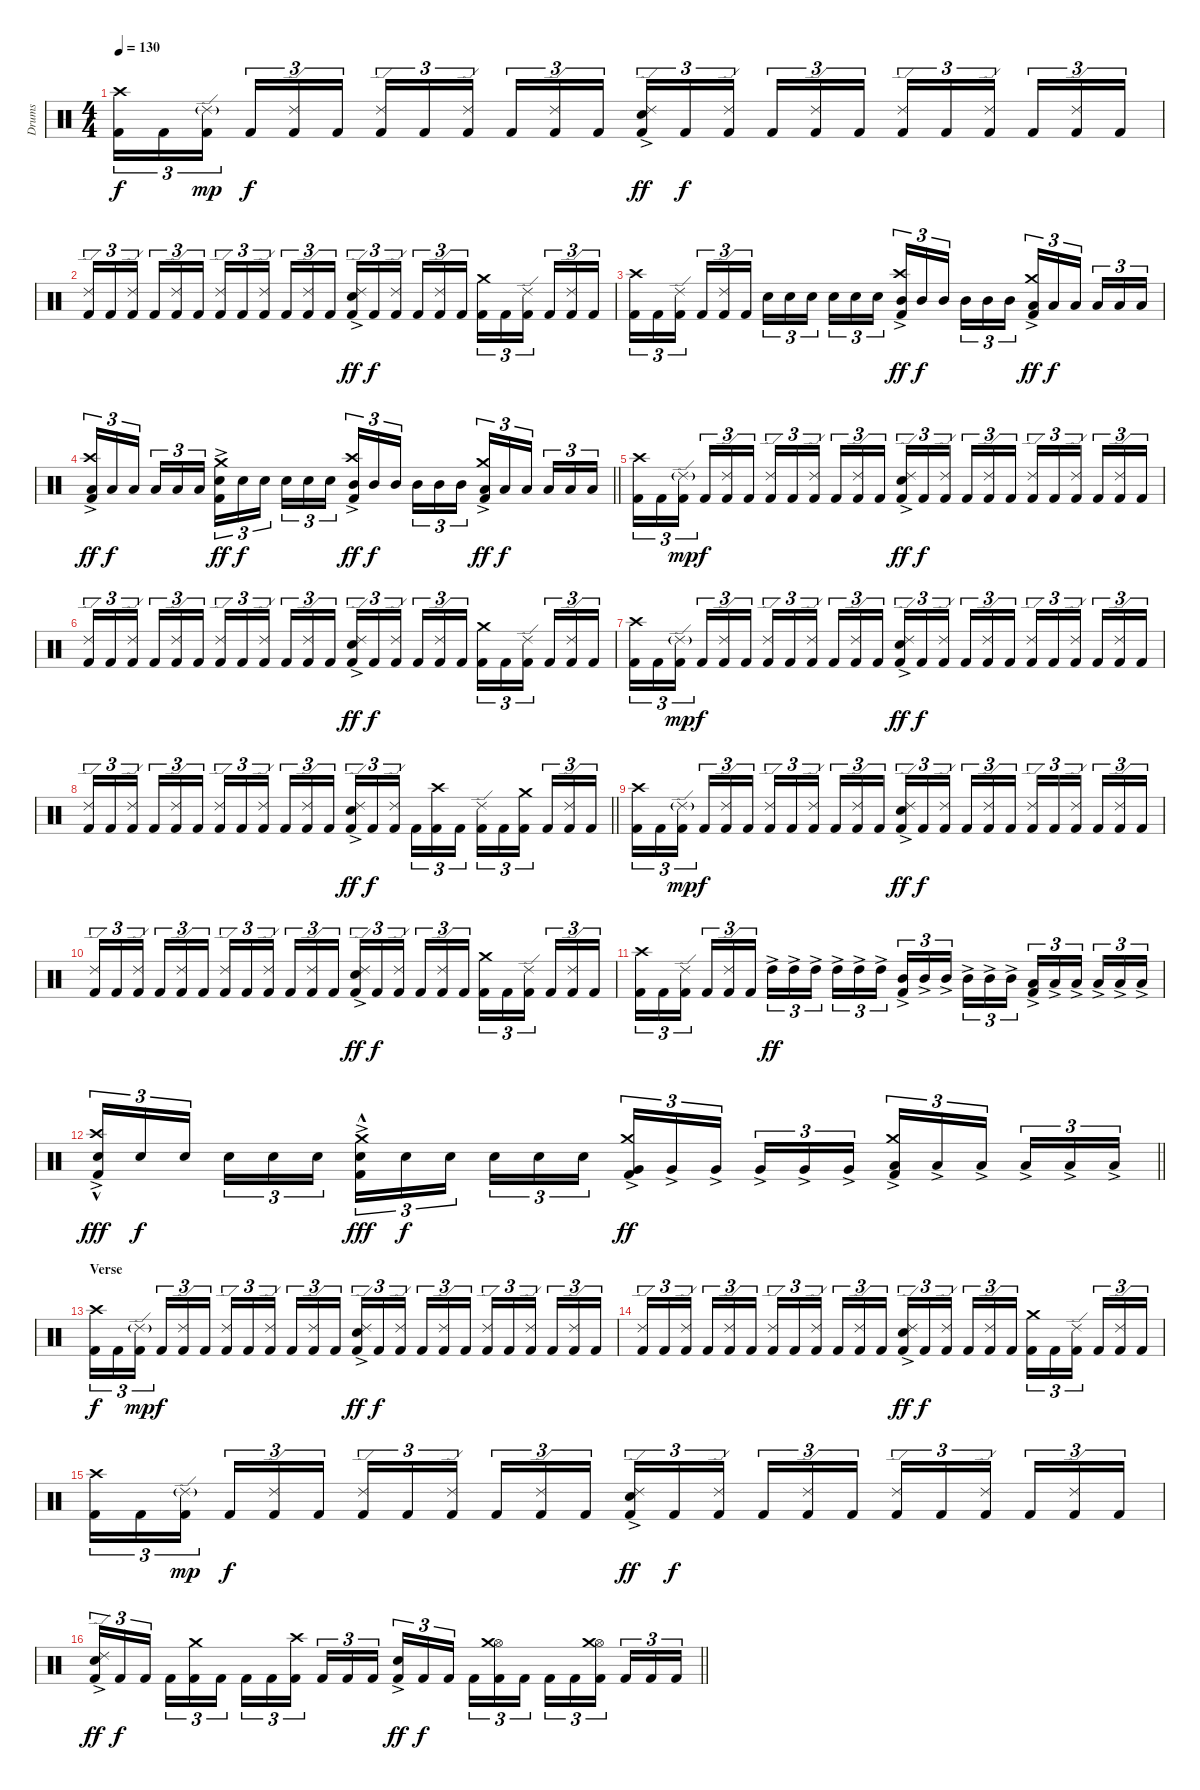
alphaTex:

\track ("Drums" "Drums") {instrument percussion}
\staff {score}
\articulation defaults
\ts (4 4)
\section ("" "")
\tempo 130
\clef neutral
\ks c
("Kick (hit) 2" "Crash high (hit)").16{tu (3 2) dy f} "Kick (hit) 2".16{tu (3 2)} ("Kick (hit) 2" "Ride (edge) 2"{g}).16{tu (3 2) dy mp beam splitsecondary} "Kick (hit) 2".16{tu (3 2) dy f} ("Kick (hit) 2" "Ride (edge) 2").16{tu (3 2)} "Kick (hit) 2".16{tu (3 2)} ("Kick (hit) 2" "Ride (edge) 2").16{tu (3 2)} "Kick (hit) 2".16{tu (3 2)} ("Kick (hit) 2" "Ride (edge) 2").16{tu (3 2) beam splitsecondary} "Kick (hit) 2".16{tu (3 2)} ("Kick (hit) 2" "Ride (edge) 2").16{tu (3 2)} "Kick (hit) 2".16{tu (3 2)} ("Kick (hit) 2" "Snare (hit) 2"{ac} "Ride (edge) 2").16{tu (3 2) dy ff} "Kick (hit) 2".16{tu (3 2) dy f} ("Kick (hit) 2" "Ride (edge) 2").16{tu (3 2) beam splitsecondary} "Kick (hit) 2".16{tu (3 2)} ("Kick (hit) 2" "Ride (edge) 2").16{tu (3 2)} "Kick (hit) 2".16{tu (3 2)} ("Kick (hit) 2" "Ride (edge) 2").16{tu (3 2)} "Kick (hit) 2".16{tu (3 2)} ("Kick (hit) 2" "Ride (edge) 2").16{tu (3 2) beam splitsecondary} "Kick (hit) 2".16{tu (3 2)} ("Kick (hit) 2" "Ride (edge) 2").16{tu (3 2)} "Kick (hit) 2".16{tu (3 2)} |
("Kick (hit) 2" "Ride (edge) 2").16{tu (3 2)} "Kick (hit) 2".16{tu (3 2)} ("Kick (hit) 2" "Ride (edge) 2").16{tu (3 2) beam splitsecondary} "Kick (hit) 2".16{tu (3 2)} ("Kick (hit) 2" "Ride (edge) 2").16{tu (3 2)} "Kick (hit) 2".16{tu (3 2)} ("Kick (hit) 2" "Ride (edge) 2").16{tu (3 2)} "Kick (hit) 2".16{tu (3 2)} ("Kick (hit) 2" "Ride (edge) 2").16{tu (3 2) beam splitsecondary} "Kick (hit) 2".16{tu (3 2)} ("Kick (hit) 2" "Ride (edge) 2").16{tu (3 2)} "Kick (hit) 2".16{tu (3 2)} ("Kick (hit) 2" "Snare (hit) 2"{ac} "Ride (edge) 2").16{tu (3 2) dy ff} "Kick (hit) 2".16{tu (3 2) dy f} ("Kick (hit) 2" "Ride (edge) 2").16{tu (3 2) beam splitsecondary} "Kick (hit) 2".16{tu (3 2)} ("Kick (hit) 2" "Ride (edge) 2").16{tu (3 2)} "Kick (hit) 2".16{tu (3 2)} ("Kick (hit) 2" "Crash medium (hit)").16{tu (3 2)} "Kick (hit) 2".16{tu (3 2)} ("Kick (hit) 2" "Ride (edge) 2").16{tu (3 2) beam splitsecondary} "Kick (hit) 2".16{tu (3 2)} ("Kick (hit) 2" "Ride (edge) 2").16{tu (3 2)} "Kick (hit) 2".16{tu (3 2)} |
("Kick (hit) 2" "Crash high (hit)").16{tu (3 2)} "Kick (hit) 2".16{tu (3 2)} ("Kick (hit) 2" "Ride (edge) 2").16{tu (3 2) beam splitsecondary} "Kick (hit) 2".16{tu (3 2)} ("Kick (hit) 2" "Ride (edge) 2").16{tu (3 2)} "Kick (hit) 2".16{tu (3 2)} "Snare (hit) 2".16{tu (3 2)} "Snare (hit) 2".16{tu (3 2)} "Snare (hit) 2".16{tu (3 2) beam splitsecondary} "Snare (hit) 2".16{tu (3 2)} "Snare (hit) 2".16{tu (3 2)} "Snare (hit) 2".16{tu (3 2)} ("Kick (hit) 2"{ac} "Mid Tom (hit)" "Crash high (hit)").16{tu (3 2) dy ff} "Mid Tom (hit)".16{tu (3 2) dy f} "Mid Tom (hit)".16{tu (3 2) beam splitsecondary} "Mid Tom (hit)".16{tu (3 2)} "Mid Tom (hit)".16{tu (3 2)} "Mid Tom (hit)".16{tu (3 2)} ("Kick (hit) 2"{ac} "Low Tom (hit)" "Crash medium (hit)").16{tu (3 2) dy ff} "Low Tom (hit)".16{tu (3 2) dy f} "Low Tom (hit)".16{tu (3 2) beam splitsecondary} "Low Tom (hit)".16{tu (3 2)} "Low Tom (hit)".16{tu (3 2)} "Low Tom (hit)".16{tu (3 2)} |
\barLineRight lightlight
("Kick (hit) 2"{ac} "Low Tom (hit)" "Crash high (hit)").16{tu (3 2) dy ff} "Low Tom (hit)".16{tu (3 2) dy f} "Low Tom (hit)".16{tu (3 2) beam splitsecondary} "Low Tom (hit)".16{tu (3 2)} "Low Tom (hit)".16{tu (3 2)} "Low Tom (hit)".16{tu (3 2)} ("Kick (hit) 2"{ac} "Snare (hit) 2" "Crash medium (hit)").16{tu (3 2) dy ff} "Snare (hit) 2".16{tu (3 2) dy f} "Snare (hit) 2".16{tu (3 2) beam splitsecondary} "Snare (hit) 2".16{tu (3 2)} "Snare (hit) 2".16{tu (3 2)} "Snare (hit) 2".16{tu (3 2)} ("Kick (hit) 2"{ac} "Mid Tom (hit)" "Crash high (hit)").16{tu (3 2) dy ff} "Mid Tom (hit)".16{tu (3 2) dy f} "Mid Tom (hit)".16{tu (3 2) beam splitsecondary} "Mid Tom (hit)".16{tu (3 2)} "Mid Tom (hit)".16{tu (3 2)} "Mid Tom (hit)".16{tu (3 2)} ("Kick (hit) 2"{ac} "Low Tom (hit)" "Crash medium (hit)").16{tu (3 2) dy ff} "Low Tom (hit)".16{tu (3 2) dy f} "Low Tom (hit)".16{tu (3 2) beam splitsecondary} "Low Tom (hit)".16{tu (3 2)} "Low Tom (hit)".16{tu (3 2)} "Low Tom (hit)".16{tu (3 2)} |
\section ("" "")
("Kick (hit) 2" "Crash high (hit)").16{tu (3 2)} "Kick (hit) 2".16{tu (3 2)} ("Kick (hit) 2" "Ride (edge) 2"{g}).16{tu (3 2) dy mp beam splitsecondary} "Kick (hit) 2".16{tu (3 2) dy f} ("Kick (hit) 2" "Ride (edge) 2").16{tu (3 2)} "Kick (hit) 2".16{tu (3 2)} ("Kick (hit) 2" "Ride (edge) 2").16{tu (3 2)} "Kick (hit) 2".16{tu (3 2)} ("Kick (hit) 2" "Ride (edge) 2").16{tu (3 2) beam splitsecondary} "Kick (hit) 2".16{tu (3 2)} ("Kick (hit) 2" "Ride (edge) 2").16{tu (3 2)} "Kick (hit) 2".16{tu (3 2)} ("Kick (hit) 2" "Snare (hit) 2"{ac} "Ride (edge) 2").16{tu (3 2) dy ff} "Kick (hit) 2".16{tu (3 2) dy f} ("Kick (hit) 2" "Ride (edge) 2").16{tu (3 2) beam splitsecondary} "Kick (hit) 2".16{tu (3 2)} ("Kick (hit) 2" "Ride (edge) 2").16{tu (3 2)} "Kick (hit) 2".16{tu (3 2)} ("Kick (hit) 2" "Ride (edge) 2").16{tu (3 2)} "Kick (hit) 2".16{tu (3 2)} ("Kick (hit) 2" "Ride (edge) 2").16{tu (3 2) beam splitsecondary} "Kick (hit) 2".16{tu (3 2)} ("Kick (hit) 2" "Ride (edge) 2").16{tu (3 2)} "Kick (hit) 2".16{tu (3 2)} |
("Kick (hit) 2" "Ride (edge) 2").16{tu (3 2)} "Kick (hit) 2".16{tu (3 2)} ("Kick (hit) 2" "Ride (edge) 2").16{tu (3 2) beam splitsecondary} "Kick (hit) 2".16{tu (3 2)} ("Kick (hit) 2" "Ride (edge) 2").16{tu (3 2)} "Kick (hit) 2".16{tu (3 2)} ("Kick (hit) 2" "Ride (edge) 2").16{tu (3 2)} "Kick (hit) 2".16{tu (3 2)} ("Kick (hit) 2" "Ride (edge) 2").16{tu (3 2) beam splitsecondary} "Kick (hit) 2".16{tu (3 2)} ("Kick (hit) 2" "Ride (edge) 2").16{tu (3 2)} "Kick (hit) 2".16{tu (3 2)} ("Kick (hit) 2" "Snare (hit) 2"{ac} "Ride (edge) 2").16{tu (3 2) dy ff} "Kick (hit) 2".16{tu (3 2) dy f} ("Kick (hit) 2" "Ride (edge) 2").16{tu (3 2) beam splitsecondary} "Kick (hit) 2".16{tu (3 2)} ("Kick (hit) 2" "Ride (edge) 2").16{tu (3 2)} "Kick (hit) 2".16{tu (3 2)} ("Kick (hit) 2" "Crash medium (hit)").16{tu (3 2)} "Kick (hit) 2".16{tu (3 2)} ("Kick (hit) 2" "Ride (edge) 2").16{tu (3 2) beam splitsecondary} "Kick (hit) 2".16{tu (3 2)} ("Kick (hit) 2" "Ride (edge) 2").16{tu (3 2)} "Kick (hit) 2".16{tu (3 2)} |
("Kick (hit) 2" "Crash high (hit)").16{tu (3 2)} "Kick (hit) 2".16{tu (3 2)} ("Kick (hit) 2" "Ride (edge) 2"{g}).16{tu (3 2) dy mp beam splitsecondary} "Kick (hit) 2".16{tu (3 2) dy f} ("Kick (hit) 2" "Ride (edge) 2").16{tu (3 2)} "Kick (hit) 2".16{tu (3 2)} ("Kick (hit) 2" "Ride (edge) 2").16{tu (3 2)} "Kick (hit) 2".16{tu (3 2)} ("Kick (hit) 2" "Ride (edge) 2").16{tu (3 2) beam splitsecondary} "Kick (hit) 2".16{tu (3 2)} ("Kick (hit) 2" "Ride (edge) 2").16{tu (3 2)} "Kick (hit) 2".16{tu (3 2)} ("Kick (hit) 2" "Snare (hit) 2"{ac} "Ride (edge) 2").16{tu (3 2) dy ff} "Kick (hit) 2".16{tu (3 2) dy f} ("Kick (hit) 2" "Ride (edge) 2").16{tu (3 2) beam splitsecondary} "Kick (hit) 2".16{tu (3 2)} ("Kick (hit) 2" "Ride (edge) 2").16{tu (3 2)} "Kick (hit) 2".16{tu (3 2)} ("Kick (hit) 2" "Ride (edge) 2").16{tu (3 2)} "Kick (hit) 2".16{tu (3 2)} ("Kick (hit) 2" "Ride (edge) 2").16{tu (3 2) beam splitsecondary} "Kick (hit) 2".16{tu (3 2)} ("Kick (hit) 2" "Ride (edge) 2").16{tu (3 2)} "Kick (hit) 2".16{tu (3 2)} |
\barLineRight lightlight
("Kick (hit) 2" "Ride (edge) 2").16{tu (3 2)} "Kick (hit) 2".16{tu (3 2)} ("Kick (hit) 2" "Ride (edge) 2").16{tu (3 2) beam splitsecondary} "Kick (hit) 2".16{tu (3 2)} ("Kick (hit) 2" "Ride (edge) 2").16{tu (3 2)} "Kick (hit) 2".16{tu (3 2)} ("Kick (hit) 2" "Ride (edge) 2").16{tu (3 2)} "Kick (hit) 2".16{tu (3 2)} ("Kick (hit) 2" "Ride (edge) 2").16{tu (3 2) beam splitsecondary} "Kick (hit) 2".16{tu (3 2)} ("Kick (hit) 2" "Ride (edge) 2").16{tu (3 2)} "Kick (hit) 2".16{tu (3 2)} ("Kick (hit) 2" "Snare (hit) 2"{ac} "Ride (edge) 2").16{tu (3 2) dy ff} "Kick (hit) 2".16{tu (3 2) dy f} ("Kick (hit) 2" "Ride (edge) 2").16{tu (3 2) beam splitsecondary} "Kick (hit) 2".16{tu (3 2)} ("Kick (hit) 2" "Crash high (hit)").16{tu (3 2)} "Kick (hit) 2".16{tu (3 2)} ("Kick (hit) 2" "Ride (edge) 2").16{tu (3 2)} "Kick (hit) 2".16{tu (3 2)} ("Kick (hit) 2" "Crash medium (hit)").16{tu (3 2) beam splitsecondary} "Kick (hit) 2".16{tu (3 2)} ("Kick (hit) 2" "Ride (edge) 2").16{tu (3 2)} "Kick (hit) 2".16{tu (3 2)} |
\section ("" "")
("Kick (hit) 2" "Crash high (hit)").16{tu (3 2)} "Kick (hit) 2".16{tu (3 2)} ("Kick (hit) 2" "Ride (edge) 2"{g}).16{tu (3 2) dy mp beam splitsecondary} "Kick (hit) 2".16{tu (3 2) dy f} ("Kick (hit) 2" "Ride (edge) 2").16{tu (3 2)} "Kick (hit) 2".16{tu (3 2)} ("Kick (hit) 2" "Ride (edge) 2").16{tu (3 2)} "Kick (hit) 2".16{tu (3 2)} ("Kick (hit) 2" "Ride (edge) 2").16{tu (3 2) beam splitsecondary} "Kick (hit) 2".16{tu (3 2)} ("Kick (hit) 2" "Ride (edge) 2").16{tu (3 2)} "Kick (hit) 2".16{tu (3 2)} ("Kick (hit) 2" "Snare (hit) 2"{ac} "Ride (edge) 2").16{tu (3 2) dy ff} "Kick (hit) 2".16{tu (3 2) dy f} ("Kick (hit) 2" "Ride (edge) 2").16{tu (3 2) beam splitsecondary} "Kick (hit) 2".16{tu (3 2)} ("Kick (hit) 2" "Ride (edge) 2").16{tu (3 2)} "Kick (hit) 2".16{tu (3 2)} ("Kick (hit) 2" "Ride (edge) 2").16{tu (3 2)} "Kick (hit) 2".16{tu (3 2)} ("Kick (hit) 2" "Ride (edge) 2").16{tu (3 2) beam splitsecondary} "Kick (hit) 2".16{tu (3 2)} ("Kick (hit) 2" "Ride (edge) 2").16{tu (3 2)} "Kick (hit) 2".16{tu (3 2)} |
("Kick (hit) 2" "Ride (edge) 2").16{tu (3 2)} "Kick (hit) 2".16{tu (3 2)} ("Kick (hit) 2" "Ride (edge) 2").16{tu (3 2) beam splitsecondary} "Kick (hit) 2".16{tu (3 2)} ("Kick (hit) 2" "Ride (edge) 2").16{tu (3 2)} "Kick (hit) 2".16{tu (3 2)} ("Kick (hit) 2" "Ride (edge) 2").16{tu (3 2)} "Kick (hit) 2".16{tu (3 2)} ("Kick (hit) 2" "Ride (edge) 2").16{tu (3 2) beam splitsecondary} "Kick (hit) 2".16{tu (3 2)} ("Kick (hit) 2" "Ride (edge) 2").16{tu (3 2)} "Kick (hit) 2".16{tu (3 2)} ("Kick (hit) 2" "Snare (hit) 2"{ac} "Ride (edge) 2").16{tu (3 2) dy ff} "Kick (hit) 2".16{tu (3 2) dy f} ("Kick (hit) 2" "Ride (edge) 2").16{tu (3 2) beam splitsecondary} "Kick (hit) 2".16{tu (3 2)} ("Kick (hit) 2" "Ride (edge) 2").16{tu (3 2)} "Kick (hit) 2".16{tu (3 2)} ("Kick (hit) 2" "Crash medium (hit)").16{tu (3 2)} "Kick (hit) 2".16{tu (3 2)} ("Kick (hit) 2" "Ride (edge) 2").16{tu (3 2) beam splitsecondary} "Kick (hit) 2".16{tu (3 2)} ("Kick (hit) 2" "Ride (edge) 2").16{tu (3 2)} "Kick (hit) 2".16{tu (3 2)} |
("Kick (hit) 2" "Crash high (hit)").16{tu (3 2)} "Kick (hit) 2".16{tu (3 2)} ("Kick (hit) 2" "Ride (edge) 2").16{tu (3 2) beam splitsecondary} "Kick (hit) 2".16{tu (3 2)} ("Kick (hit) 2" "Ride (edge) 2").16{tu (3 2)} "Kick (hit) 2".16{tu (3 2)} "High Tom (hit)"{ac}.16{tu (3 2) dy ff} "High Tom (hit)"{ac}.16{tu (3 2)} "High Tom (hit)"{ac}.16{tu (3 2) beam splitsecondary} "High Tom (hit)"{ac}.16{tu (3 2)} "High Tom (hit)"{ac}.16{tu (3 2)} "High Tom (hit)"{ac}.16{tu (3 2)} ("Kick (hit) 2"{ac} "Mid Tom (hit)"{ac}).16{tu (3 2)} "Mid Tom (hit)"{ac}.16{tu (3 2)} "Mid Tom (hit)"{ac}.16{tu (3 2) beam splitsecondary} "Mid Tom (hit)"{ac}.16{tu (3 2)} "Mid Tom (hit)"{ac}.16{tu (3 2)} "Mid Tom (hit)"{ac}.16{tu (3 2)} ("Kick (hit) 2"{ac} "Low Tom (hit)"{ac}).16{tu (3 2)} "Low Tom (hit)"{ac}.16{tu (3 2)} "Low Tom (hit)"{ac}.16{tu (3 2) beam splitsecondary} "Low Tom (hit)"{ac}.16{tu (3 2)} "Low Tom (hit)"{ac}.16{tu (3 2)} "Low Tom (hit)"{ac}.16{tu (3 2)} |
\barLineRight lightlight
("Kick (hit) 2"{ac} "Snare (hit) 2"{hac} "Crash high (hit)").16{tu (3 2) dy fff} "Snare (hit) 2".16{tu (3 2) dy f} "Snare (hit) 2".16{tu (3 2) beam splitsecondary} "Snare (hit) 2".16{tu (3 2)} "Snare (hit) 2".16{tu (3 2)} "Snare (hit) 2".16{tu (3 2)} ("Kick (hit) 2"{ac} "Snare (hit) 2"{hac} "Crash medium (hit)").16{tu (3 2) dy fff} "Snare (hit) 2".16{tu (3 2) dy f} "Snare (hit) 2".16{tu (3 2) beam splitsecondary} "Snare (hit) 2".16{tu (3 2)} "Snare (hit) 2".16{tu (3 2)} "Snare (hit) 2".16{tu (3 2)} ("Kick (hit) 2"{ac} "Very Low Tom (hit)"{ac} "Crash medium (hit)").16{tu (3 2) dy ff} "Very Low Tom (hit)"{ac}.16{tu (3 2)} "Very Low Tom (hit)"{ac}.16{tu (3 2) beam splitsecondary} "Very Low Tom (hit)"{ac}.16{tu (3 2)} "Very Low Tom (hit)"{ac}.16{tu (3 2)} "Very Low Tom (hit)"{ac}.16{tu (3 2)} ("Kick (hit) 2"{ac} "Low Floor Tom (hit)"{ac} "Crash medium (hit)").16{tu (3 2)} "Low Floor Tom (hit)"{ac}.16{tu (3 2)} "Low Floor Tom (hit)"{ac}.16{tu (3 2) beam splitsecondary} "Low Floor Tom (hit)"{ac}.16{tu (3 2)} "Low Floor Tom (hit)"{ac}.16{tu (3 2)} "Low Floor Tom (hit)"{ac}.16{tu (3 2)} |
\section ("" "Verse")
("Kick (hit) 2" "Crash high (hit)").16{tu (3 2) dy f} "Kick (hit) 2".16{tu (3 2)} ("Kick (hit) 2" "Ride (edge) 2"{g}).16{tu (3 2) dy mp beam splitsecondary} "Kick (hit) 2".16{tu (3 2) dy f} ("Kick (hit) 2" "Ride (edge) 2").16{tu (3 2)} "Kick (hit) 2".16{tu (3 2)} ("Kick (hit) 2" "Ride (edge) 2").16{tu (3 2)} "Kick (hit) 2".16{tu (3 2)} ("Kick (hit) 2" "Ride (edge) 2").16{tu (3 2) beam splitsecondary} "Kick (hit) 2".16{tu (3 2)} ("Kick (hit) 2" "Ride (edge) 2").16{tu (3 2)} "Kick (hit) 2".16{tu (3 2)} ("Kick (hit) 2" "Snare (hit) 2"{ac} "Ride (edge) 2").16{tu (3 2) dy ff} "Kick (hit) 2".16{tu (3 2) dy f} ("Kick (hit) 2" "Ride (edge) 2").16{tu (3 2) beam splitsecondary} "Kick (hit) 2".16{tu (3 2)} ("Kick (hit) 2" "Ride (edge) 2").16{tu (3 2)} "Kick (hit) 2".16{tu (3 2)} ("Kick (hit) 2" "Ride (edge) 2").16{tu (3 2)} "Kick (hit) 2".16{tu (3 2)} ("Kick (hit) 2" "Ride (edge) 2").16{tu (3 2) beam splitsecondary} "Kick (hit) 2".16{tu (3 2)} ("Kick (hit) 2" "Ride (edge) 2").16{tu (3 2)} "Kick (hit) 2".16{tu (3 2)} |
("Kick (hit) 2" "Ride (edge) 2").16{tu (3 2)} "Kick (hit) 2".16{tu (3 2)} ("Kick (hit) 2" "Ride (edge) 2").16{tu (3 2) beam splitsecondary} "Kick (hit) 2".16{tu (3 2)} ("Kick (hit) 2" "Ride (edge) 2").16{tu (3 2)} "Kick (hit) 2".16{tu (3 2)} ("Kick (hit) 2" "Ride (edge) 2").16{tu (3 2)} "Kick (hit) 2".16{tu (3 2)} ("Kick (hit) 2" "Ride (edge) 2").16{tu (3 2) beam splitsecondary} "Kick (hit) 2".16{tu (3 2)} ("Kick (hit) 2" "Ride (edge) 2").16{tu (3 2)} "Kick (hit) 2".16{tu (3 2)} ("Kick (hit) 2" "Snare (hit) 2"{ac} "Ride (edge) 2").16{tu (3 2) dy ff} "Kick (hit) 2".16{tu (3 2) dy f} ("Kick (hit) 2" "Ride (edge) 2").16{tu (3 2) beam splitsecondary} "Kick (hit) 2".16{tu (3 2)} ("Kick (hit) 2" "Ride (edge) 2").16{tu (3 2)} "Kick (hit) 2".16{tu (3 2)} ("Kick (hit) 2" "Crash medium (hit)").16{tu (3 2)} "Kick (hit) 2".16{tu (3 2)} ("Kick (hit) 2" "Ride (edge) 2").16{tu (3 2) beam splitsecondary} "Kick (hit) 2".16{tu (3 2)} ("Kick (hit) 2" "Ride (edge) 2").16{tu (3 2)} "Kick (hit) 2".16{tu (3 2)} |
("Kick (hit) 2" "Crash high (hit)").16{tu (3 2)} "Kick (hit) 2".16{tu (3 2)} ("Kick (hit) 2" "Ride (edge) 2"{g}).16{tu (3 2) dy mp beam splitsecondary} "Kick (hit) 2".16{tu (3 2) dy f} ("Kick (hit) 2" "Ride (edge) 2").16{tu (3 2)} "Kick (hit) 2".16{tu (3 2)} ("Kick (hit) 2" "Ride (edge) 2").16{tu (3 2)} "Kick (hit) 2".16{tu (3 2)} ("Kick (hit) 2" "Ride (edge) 2").16{tu (3 2) beam splitsecondary} "Kick (hit) 2".16{tu (3 2)} ("Kick (hit) 2" "Ride (edge) 2").16{tu (3 2)} "Kick (hit) 2".16{tu (3 2)} ("Kick (hit) 2" "Snare (hit) 2"{ac} "Ride (edge) 2").16{tu (3 2) dy ff} "Kick (hit) 2".16{tu (3 2) dy f} ("Kick (hit) 2" "Ride (edge) 2").16{tu (3 2) beam splitsecondary} "Kick (hit) 2".16{tu (3 2)} ("Kick (hit) 2" "Ride (edge) 2").16{tu (3 2)} "Kick (hit) 2".16{tu (3 2)} ("Kick (hit) 2" "Ride (edge) 2").16{tu (3 2)} "Kick (hit) 2".16{tu (3 2)} ("Kick (hit) 2" "Ride (edge) 2").16{tu (3 2) beam splitsecondary} "Kick (hit) 2".16{tu (3 2)} ("Kick (hit) 2" "Ride (edge) 2").16{tu (3 2)} "Kick (hit) 2".16{tu (3 2)} |
\barLineRight lightlight
("Kick (hit) 2" "Snare (hit) 2"{ac} "Ride (edge) 2").16{tu (3 2) dy ff} "Kick (hit) 2".16{tu (3 2) dy f} "Kick (hit) 2".16{tu (3 2) beam splitsecondary} "Kick (hit) 2".16{tu (3 2)} ("Kick (hit) 2" "Crash medium (hit)").16{tu (3 2)} "Kick (hit) 2".16{tu (3 2)} "Kick (hit) 2".16{tu (3 2)} "Kick (hit) 2".16{tu (3 2)} ("Kick (hit) 2" "Crash high (hit)").16{tu (3 2) beam splitsecondary} "Kick (hit) 2".16{tu (3 2)} "Kick (hit) 2".16{tu (3 2)} "Kick (hit) 2".16{tu (3 2)} ("Kick (hit) 2" "Snare (hit) 2"{ac}).16{tu (3 2) dy ff} "Kick (hit) 2".16{tu (3 2) dy f} "Kick (hit) 2".16{tu (3 2) beam splitsecondary} "Kick (hit) 2".16{tu (3 2)} ("Kick (hit) 2" "Hi-Hat (open)" "Crash medium (hit)").16{tu (3 2)} "Kick (hit) 2".16{tu (3 2)} "Kick (hit) 2".16{tu (3 2)} "Kick (hit) 2".16{tu (3 2)} ("Kick (hit) 2" "Hi-Hat (open)" "Crash medium (hit)").16{tu (3 2) beam splitsecondary} "Kick (hit) 2".16{tu (3 2)} "Kick (hit) 2".16{tu (3 2)} "Kick (hit) 2".16{tu (3 2)}
